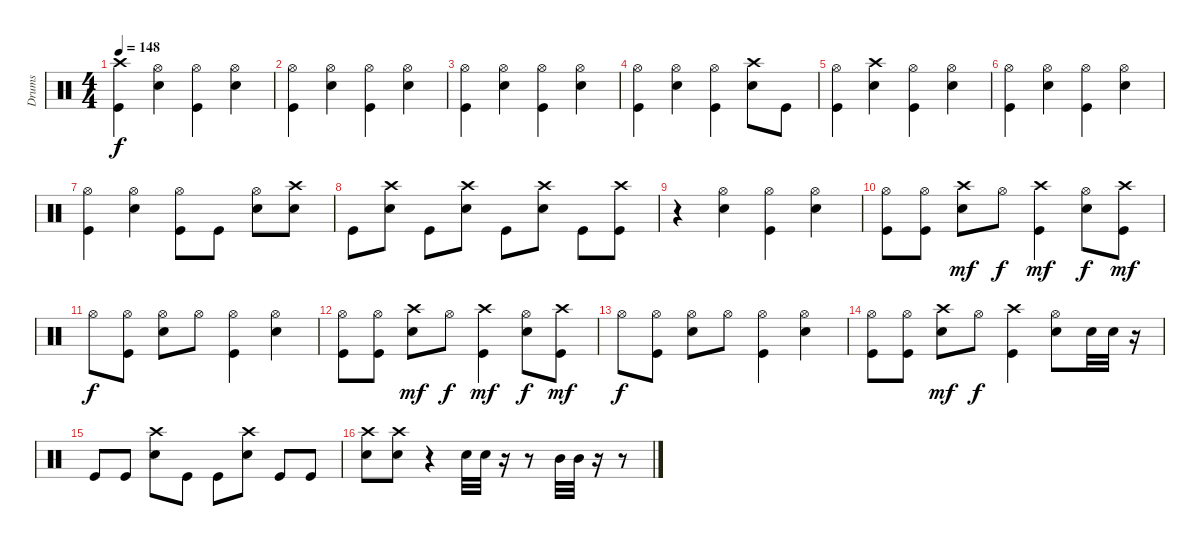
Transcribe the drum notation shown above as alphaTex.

\track ("Drums" "Drums") {instrument percussion}
\staff {score}
\articulation defaults
\ts (4 4)
\tempo 148
\clef neutral
\ks c
("Crash high (hit)" "Kick (hit)").4{dy f} ("Hi-Hat (open)" "Snare (hit) 2").4 ("Hi-Hat (open)" "Kick (hit)").4 ("Hi-Hat (open)" "Snare (hit) 2").4 |
("Hi-Hat (open)" "Kick (hit)").4 ("Hi-Hat (open)" "Snare (hit) 2").4 ("Hi-Hat (open)" "Kick (hit)").4 ("Hi-Hat (open)" "Snare (hit) 2").4 |
("Hi-Hat (open)" "Kick (hit)").4 ("Hi-Hat (open)" "Snare (hit) 2").4 ("Hi-Hat (open)" "Kick (hit)").4 ("Hi-Hat (open)" "Snare (hit) 2").4 |
("Hi-Hat (open)" "Kick (hit)").4 ("Hi-Hat (open)" "Snare (hit) 2").4 ("Hi-Hat (open)" "Kick (hit)").4 ("Crash high (hit)" "Snare (hit) 2").8 "Kick (hit)".8 |
("Hi-Hat (open)" "Kick (hit)").4 ("Crash high (hit)" "Snare (hit) 2").4 ("Hi-Hat (open)" "Kick (hit)").4 ("Hi-Hat (open)" "Snare (hit) 2").4 |
("Hi-Hat (open)" "Kick (hit)").4 ("Hi-Hat (open)" "Snare (hit) 2").4 ("Hi-Hat (open)" "Kick (hit)").4 ("Hi-Hat (open)" "Snare (hit) 2").4 |
("Hi-Hat (open)" "Kick (hit)").4 ("Hi-Hat (open)" "Snare (hit) 2").4 ("Hi-Hat (open)" "Kick (hit)").8 "Kick (hit)".8 ("Hi-Hat (open)" "Snare (hit) 2").8 ("Crash high (hit)" "Snare (hit) 2").8 |
"Kick (hit)".8 ("Crash high (hit)" "Snare (hit) 2").8 "Kick (hit)".8 ("Crash high (hit)" "Snare (hit) 2").8 "Kick (hit)".8 ("Crash high (hit)" "Snare (hit) 2").8 "Kick (hit)".8 ("Crash high (hit)" "Kick (hit)").8 |
r.4 ("Hi-Hat (open)" "Snare (hit) 2").4 ("Hi-Hat (open)" "Kick (hit)").4 ("Hi-Hat (open)" "Snare (hit) 2").4 |
("Hi-Hat (open)" "Kick (hit)").8 ("Hi-Hat (open)" "Kick (hit)").8 ("Crash high (hit)" "Snare (hit) 2").8{dy mf} "Hi-Hat (open)".8{dy f} ("Crash high (hit)" "Kick (hit)").4{dy mf} ("Hi-Hat (open)" "Snare (hit) 2").8{dy f} ("Crash high (hit)" "Kick (hit)").8{dy mf} |
"Hi-Hat (open)".8{dy f} ("Hi-Hat (open)" "Kick (hit)").8 ("Hi-Hat (open)" "Snare (hit) 2").8 "Hi-Hat (open)".8 ("Hi-Hat (open)" "Kick (hit)").4 ("Hi-Hat (open)" "Snare (hit) 2").4 |
("Hi-Hat (open)" "Kick (hit)").8 ("Hi-Hat (open)" "Kick (hit)").8 ("Crash high (hit)" "Snare (hit) 2").8{dy mf} "Hi-Hat (open)".8{dy f} ("Crash high (hit)" "Kick (hit)").4{dy mf} ("Hi-Hat (open)" "Snare (hit) 2").8{dy f} ("Crash high (hit)" "Kick (hit)").8{dy mf} |
"Hi-Hat (open)".8{dy f} ("Hi-Hat (open)" "Kick (hit)").8 ("Hi-Hat (open)" "Snare (hit) 2").8 "Hi-Hat (open)".8 ("Hi-Hat (open)" "Kick (hit)").4 ("Hi-Hat (open)" "Snare (hit) 2").4 |
("Hi-Hat (open)" "Kick (hit)").8 ("Hi-Hat (open)" "Kick (hit)").8 ("Crash high (hit)" "Snare (hit) 2").8{dy mf} "Hi-Hat (open)".8{dy f} ("Crash high (hit)" "Kick (hit)").4 ("Hi-Hat (open)" "Snare (hit) 2").8 "Snare (hit) 2".32 "Snare (hit) 2".32 r.16 |
"Kick (hit)".8 "Kick (hit)".8 ("Crash high (hit)" "Snare (hit) 2").8 "Kick (hit)".8 "Kick (hit)".8 ("Crash high (hit)" "Snare (hit) 2").8 "Kick (hit)".8 "Kick (hit)".8 |
("Crash high (hit)" "Snare (hit) 2").8 ("Crash high (hit)" "Snare (hit) 2").8 r.4 "Snare (hit) 2".32 "Snare (hit) 2".32 r.16 r.8 "Mid Tom (hit)".32 "Mid Tom (hit)".32 r.16 r.8
